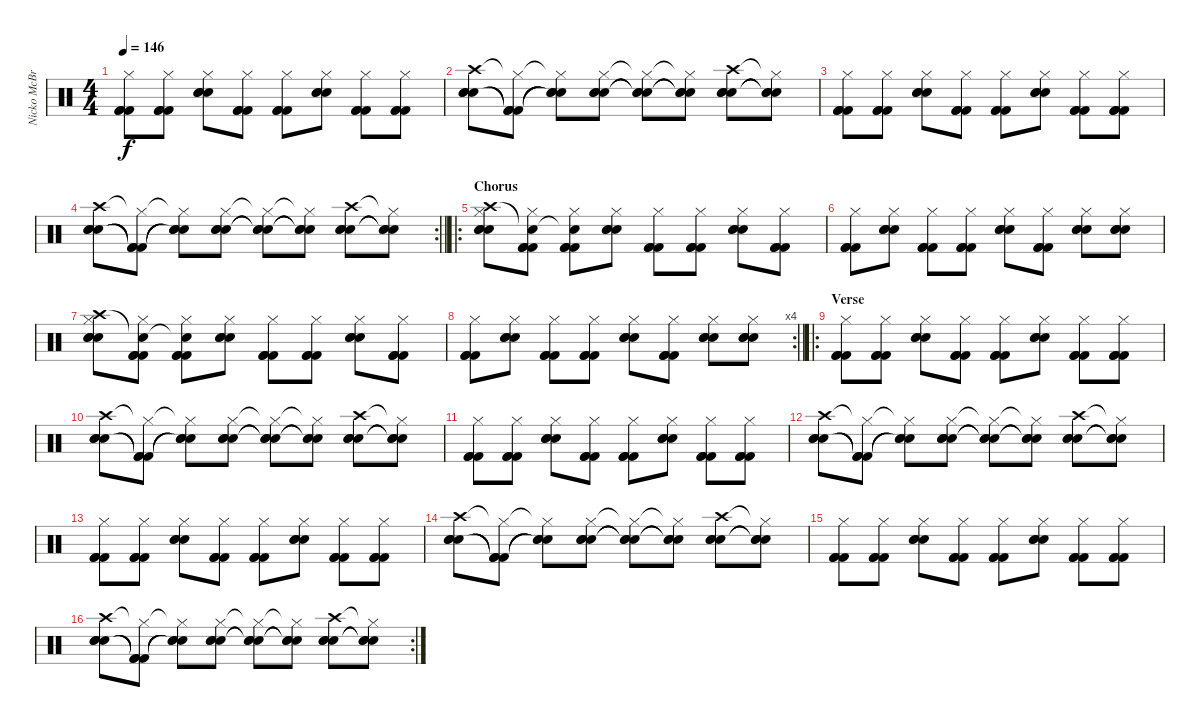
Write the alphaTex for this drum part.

\track ("Nicko McBrain" "Nicko McBr") {instrument percussion}
\staff {score}
\articulation defaults
\ts (4 4)
\tempo 146
\clef neutral
\ks c
("Hi-Hat (closed)" "Kick (hit) 2" "Kick (hit) 2" "Kick (hit) 2").8{dy f} ("Hi-Hat (closed)" "Kick (hit) 2" "Kick (hit) 2" "Kick (hit) 2").8 ("Hi-Hat (closed)" "Snare (hit) 2" "Snare (hit) 2" "Snare (hit) 2").8 ("Hi-Hat (closed)" "Kick (hit) 2" "Kick (hit) 2" "Kick (hit) 2").8 ("Hi-Hat (closed)" "Kick (hit) 2" "Kick (hit) 2" "Kick (hit) 2").8 ("Hi-Hat (closed)" "Snare (hit) 2" "Snare (hit) 2" "Snare (hit) 2").8 ("Hi-Hat (closed)" "Kick (hit) 2" "Kick (hit) 2" "Kick (hit) 2").8 ("Hi-Hat (closed)" "Kick (hit) 2" "Kick (hit) 2" "Kick (hit) 2").8 |
("Crash high (hit)" "Snare (hit) 2" "Snare (hit) 2" "Snare (hit) 2").8 ("Hi-Hat (closed)"{t} "Kick (hit) 2"{t} "Kick (hit) 2"{t} "Kick (hit) 2"{t}).8 ("Hi-Hat (closed)"{t} "Snare (hit) 2"{t} "Snare (hit) 2"{t} "Snare (hit) 2"{t}).8 ("Hi-Hat (closed)" "Snare (hit) 2" "Snare (hit) 2" "Snare (hit) 2").8 ("Hi-Hat (closed)"{t} "Snare (hit) 2"{t} "Snare (hit) 2"{t} "Snare (hit) 2"{t}).8 ("Hi-Hat (closed)"{t} "Snare (hit) 2"{t} "Snare (hit) 2"{t} "Snare (hit) 2"{t}).8 ("Crash high (hit)" "Snare (hit) 2" "Snare (hit) 2" "Snare (hit) 2").8 ("Hi-Hat (closed)"{t} "Snare (hit) 2"{t} "Snare (hit) 2"{t} "Snare (hit) 2"{t}).8 |
("Hi-Hat (closed)" "Kick (hit) 2" "Kick (hit) 2" "Kick (hit) 2").8 ("Hi-Hat (closed)" "Kick (hit) 2" "Kick (hit) 2" "Kick (hit) 2").8 ("Hi-Hat (closed)" "Snare (hit) 2" "Snare (hit) 2" "Snare (hit) 2").8 ("Hi-Hat (closed)" "Kick (hit) 2" "Kick (hit) 2" "Kick (hit) 2").8 ("Hi-Hat (closed)" "Kick (hit) 2" "Kick (hit) 2" "Kick (hit) 2").8 ("Hi-Hat (closed)" "Snare (hit) 2" "Snare (hit) 2" "Snare (hit) 2").8 ("Hi-Hat (closed)" "Kick (hit) 2" "Kick (hit) 2" "Kick (hit) 2").8 ("Hi-Hat (closed)" "Kick (hit) 2" "Kick (hit) 2" "Kick (hit) 2").8 |
\rc 2
\barLineRight lightlight
("Crash high (hit)" "Snare (hit) 2" "Snare (hit) 2" "Snare (hit) 2").8 ("Hi-Hat (closed)"{t} "Kick (hit) 2"{t} "Kick (hit) 2"{t} "Kick (hit) 2"{t}).8 ("Hi-Hat (closed)"{t} "Snare (hit) 2"{t} "Snare (hit) 2"{t} "Snare (hit) 2"{t}).8 ("Hi-Hat (closed)" "Snare (hit) 2" "Snare (hit) 2" "Snare (hit) 2").8 ("Hi-Hat (closed)"{t} "Snare (hit) 2"{t} "Snare (hit) 2"{t} "Snare (hit) 2"{t}).8 ("Hi-Hat (closed)"{t} "Snare (hit) 2"{t} "Snare (hit) 2"{t} "Snare (hit) 2"{t}).8 ("Crash high (hit)" "Snare (hit) 2" "Snare (hit) 2" "Snare (hit) 2").8 ("Hi-Hat (closed)"{t} "Snare (hit) 2"{t} "Snare (hit) 2"{t} "Snare (hit) 2"{t}).8 |
\ro
\section ("" "Chorus")
("Crash high (hit)" "Hi-Hat (closed)" "Snare (hit) 2" "Snare (hit) 2" "Snare (hit) 2").8 ("Snare (hit)"{t} "Hi-Hat (closed)" "Kick (hit) 2" "Kick (hit) 2" "Kick (hit) 2").8 ("Snare (hit)"{t} "Hi-Hat (closed)" "Kick (hit) 2" "Kick (hit) 2" "Kick (hit) 2").8 ("Hi-Hat (closed)" "Snare (hit) 2" "Snare (hit) 2" "Snare (hit) 2").8 ("Hi-Hat (closed)" "Kick (hit) 2" "Kick (hit) 2" "Kick (hit) 2").8 ("Hi-Hat (closed)" "Kick (hit) 2" "Kick (hit) 2" "Kick (hit) 2").8 ("Hi-Hat (closed)" "Snare (hit) 2" "Snare (hit) 2" "Snare (hit) 2").8 ("Hi-Hat (closed)" "Kick (hit) 2" "Kick (hit) 2" "Kick (hit) 2").8 |
("Hi-Hat (closed)" "Kick (hit) 2" "Kick (hit) 2" "Kick (hit) 2").8 ("Hi-Hat (closed)" "Snare (hit) 2" "Snare (hit) 2" "Snare (hit) 2").8 ("Hi-Hat (closed)" "Kick (hit) 2" "Kick (hit) 2" "Kick (hit) 2").8 ("Hi-Hat (closed)" "Kick (hit) 2" "Kick (hit) 2" "Kick (hit) 2").8 ("Hi-Hat (closed)" "Snare (hit) 2" "Snare (hit) 2" "Snare (hit) 2").8 ("Hi-Hat (closed)" "Kick (hit) 2" "Kick (hit) 2" "Kick (hit) 2").8 ("Hi-Hat (closed)" "Snare (hit) 2" "Snare (hit) 2" "Snare (hit) 2").8 ("Hi-Hat (closed)" "Snare (hit) 2" "Snare (hit) 2" "Snare (hit) 2").8 |
("Crash high (hit)" "Hi-Hat (closed)" "Snare (hit) 2" "Snare (hit) 2" "Snare (hit) 2").8 ("Snare (hit)"{t} "Hi-Hat (closed)" "Kick (hit) 2" "Kick (hit) 2" "Kick (hit) 2").8 ("Snare (hit)"{t} "Hi-Hat (closed)" "Kick (hit) 2" "Kick (hit) 2" "Kick (hit) 2").8 ("Hi-Hat (closed)" "Snare (hit) 2" "Snare (hit) 2" "Snare (hit) 2").8 ("Hi-Hat (closed)" "Kick (hit) 2" "Kick (hit) 2" "Kick (hit) 2").8 ("Hi-Hat (closed)" "Kick (hit) 2" "Kick (hit) 2" "Kick (hit) 2").8 ("Hi-Hat (closed)" "Snare (hit) 2" "Snare (hit) 2" "Snare (hit) 2").8 ("Hi-Hat (closed)" "Kick (hit) 2" "Kick (hit) 2" "Kick (hit) 2").8 |
\rc 4
\barLineRight lightlight
("Hi-Hat (closed)" "Kick (hit) 2" "Kick (hit) 2" "Kick (hit) 2").8 ("Hi-Hat (closed)" "Snare (hit) 2" "Snare (hit) 2" "Snare (hit) 2").8 ("Hi-Hat (closed)" "Kick (hit) 2" "Kick (hit) 2" "Kick (hit) 2").8 ("Hi-Hat (closed)" "Kick (hit) 2" "Kick (hit) 2" "Kick (hit) 2").8 ("Hi-Hat (closed)" "Snare (hit) 2" "Snare (hit) 2" "Snare (hit) 2").8 ("Hi-Hat (closed)" "Kick (hit) 2" "Kick (hit) 2" "Kick (hit) 2").8 ("Hi-Hat (closed)" "Snare (hit) 2" "Snare (hit) 2" "Snare (hit) 2").8 ("Hi-Hat (closed)" "Snare (hit) 2" "Snare (hit) 2" "Snare (hit) 2").8 |
\ro
\section ("" "Verse")
("Hi-Hat (closed)" "Kick (hit) 2" "Kick (hit) 2" "Kick (hit) 2").8 ("Hi-Hat (closed)" "Kick (hit) 2" "Kick (hit) 2" "Kick (hit) 2").8 ("Hi-Hat (closed)" "Snare (hit) 2" "Snare (hit) 2" "Snare (hit) 2").8 ("Hi-Hat (closed)" "Kick (hit) 2" "Kick (hit) 2" "Kick (hit) 2").8 ("Hi-Hat (closed)" "Kick (hit) 2" "Kick (hit) 2" "Kick (hit) 2").8 ("Hi-Hat (closed)" "Snare (hit) 2" "Snare (hit) 2" "Snare (hit) 2").8 ("Hi-Hat (closed)" "Kick (hit) 2" "Kick (hit) 2" "Kick (hit) 2").8 ("Hi-Hat (closed)" "Kick (hit) 2" "Kick (hit) 2" "Kick (hit) 2").8 |
("Crash high (hit)" "Snare (hit) 2" "Snare (hit) 2" "Snare (hit) 2").8 ("Hi-Hat (closed)"{t} "Kick (hit) 2"{t} "Kick (hit) 2"{t} "Kick (hit) 2"{t}).8 ("Hi-Hat (closed)"{t} "Snare (hit) 2"{t} "Snare (hit) 2"{t} "Snare (hit) 2"{t}).8 ("Hi-Hat (closed)" "Snare (hit) 2" "Snare (hit) 2" "Snare (hit) 2").8 ("Hi-Hat (closed)"{t} "Snare (hit) 2"{t} "Snare (hit) 2"{t} "Snare (hit) 2"{t}).8 ("Hi-Hat (closed)"{t} "Snare (hit) 2"{t} "Snare (hit) 2"{t} "Snare (hit) 2"{t}).8 ("Crash high (hit)" "Snare (hit) 2" "Snare (hit) 2" "Snare (hit) 2").8 ("Hi-Hat (closed)"{t} "Snare (hit) 2"{t} "Snare (hit) 2"{t} "Snare (hit) 2"{t}).8 |
("Hi-Hat (closed)" "Kick (hit) 2" "Kick (hit) 2" "Kick (hit) 2").8 ("Hi-Hat (closed)" "Kick (hit) 2" "Kick (hit) 2" "Kick (hit) 2").8 ("Hi-Hat (closed)" "Snare (hit) 2" "Snare (hit) 2" "Snare (hit) 2").8 ("Hi-Hat (closed)" "Kick (hit) 2" "Kick (hit) 2" "Kick (hit) 2").8 ("Hi-Hat (closed)" "Kick (hit) 2" "Kick (hit) 2" "Kick (hit) 2").8 ("Hi-Hat (closed)" "Snare (hit) 2" "Snare (hit) 2" "Snare (hit) 2").8 ("Hi-Hat (closed)" "Kick (hit) 2" "Kick (hit) 2" "Kick (hit) 2").8 ("Hi-Hat (closed)" "Kick (hit) 2" "Kick (hit) 2" "Kick (hit) 2").8 |
("Crash high (hit)" "Snare (hit) 2" "Snare (hit) 2" "Snare (hit) 2").8 ("Hi-Hat (closed)"{t} "Kick (hit) 2"{t} "Kick (hit) 2"{t} "Kick (hit) 2"{t}).8 ("Hi-Hat (closed)"{t} "Snare (hit) 2"{t} "Snare (hit) 2"{t} "Snare (hit) 2"{t}).8 ("Hi-Hat (closed)" "Snare (hit) 2" "Snare (hit) 2" "Snare (hit) 2").8 ("Hi-Hat (closed)"{t} "Snare (hit) 2"{t} "Snare (hit) 2"{t} "Snare (hit) 2"{t}).8 ("Hi-Hat (closed)"{t} "Snare (hit) 2"{t} "Snare (hit) 2"{t} "Snare (hit) 2"{t}).8 ("Crash high (hit)" "Snare (hit) 2" "Snare (hit) 2" "Snare (hit) 2").8 ("Hi-Hat (closed)"{t} "Snare (hit) 2"{t} "Snare (hit) 2"{t} "Snare (hit) 2"{t}).8 |
("Hi-Hat (closed)" "Kick (hit) 2" "Kick (hit) 2" "Kick (hit) 2").8 ("Hi-Hat (closed)" "Kick (hit) 2" "Kick (hit) 2" "Kick (hit) 2").8 ("Hi-Hat (closed)" "Snare (hit) 2" "Snare (hit) 2" "Snare (hit) 2").8 ("Hi-Hat (closed)" "Kick (hit) 2" "Kick (hit) 2" "Kick (hit) 2").8 ("Hi-Hat (closed)" "Kick (hit) 2" "Kick (hit) 2" "Kick (hit) 2").8 ("Hi-Hat (closed)" "Snare (hit) 2" "Snare (hit) 2" "Snare (hit) 2").8 ("Hi-Hat (closed)" "Kick (hit) 2" "Kick (hit) 2" "Kick (hit) 2").8 ("Hi-Hat (closed)" "Kick (hit) 2" "Kick (hit) 2" "Kick (hit) 2").8 |
("Crash high (hit)" "Snare (hit) 2" "Snare (hit) 2" "Snare (hit) 2").8 ("Hi-Hat (closed)"{t} "Kick (hit) 2"{t} "Kick (hit) 2"{t} "Kick (hit) 2"{t}).8 ("Hi-Hat (closed)"{t} "Snare (hit) 2"{t} "Snare (hit) 2"{t} "Snare (hit) 2"{t}).8 ("Hi-Hat (closed)" "Snare (hit) 2" "Snare (hit) 2" "Snare (hit) 2").8 ("Hi-Hat (closed)"{t} "Snare (hit) 2"{t} "Snare (hit) 2"{t} "Snare (hit) 2"{t}).8 ("Hi-Hat (closed)"{t} "Snare (hit) 2"{t} "Snare (hit) 2"{t} "Snare (hit) 2"{t}).8 ("Crash high (hit)" "Snare (hit) 2" "Snare (hit) 2" "Snare (hit) 2").8 ("Hi-Hat (closed)"{t} "Snare (hit) 2"{t} "Snare (hit) 2"{t} "Snare (hit) 2"{t}).8 |
("Hi-Hat (closed)" "Kick (hit) 2" "Kick (hit) 2" "Kick (hit) 2").8 ("Hi-Hat (closed)" "Kick (hit) 2" "Kick (hit) 2" "Kick (hit) 2").8 ("Hi-Hat (closed)" "Snare (hit) 2" "Snare (hit) 2" "Snare (hit) 2").8 ("Hi-Hat (closed)" "Kick (hit) 2" "Kick (hit) 2" "Kick (hit) 2").8 ("Hi-Hat (closed)" "Kick (hit) 2" "Kick (hit) 2" "Kick (hit) 2").8 ("Hi-Hat (closed)" "Snare (hit) 2" "Snare (hit) 2" "Snare (hit) 2").8 ("Hi-Hat (closed)" "Kick (hit) 2" "Kick (hit) 2" "Kick (hit) 2").8 ("Hi-Hat (closed)" "Kick (hit) 2" "Kick (hit) 2" "Kick (hit) 2").8 |
\rc 2
("Crash high (hit)" "Snare (hit) 2" "Snare (hit) 2" "Snare (hit) 2").8 ("Hi-Hat (closed)"{t} "Kick (hit) 2"{t} "Kick (hit) 2"{t} "Kick (hit) 2"{t}).8 ("Hi-Hat (closed)"{t} "Snare (hit) 2"{t} "Snare (hit) 2"{t} "Snare (hit) 2"{t}).8 ("Hi-Hat (closed)" "Snare (hit) 2" "Snare (hit) 2" "Snare (hit) 2").8 ("Hi-Hat (closed)"{t} "Snare (hit) 2"{t} "Snare (hit) 2"{t} "Snare (hit) 2"{t}).8 ("Hi-Hat (closed)"{t} "Snare (hit) 2"{t} "Snare (hit) 2"{t} "Snare (hit) 2"{t}).8 ("Crash high (hit)" "Snare (hit) 2" "Snare (hit) 2" "Snare (hit) 2").8 ("Hi-Hat (closed)"{t} "Snare (hit) 2"{t} "Snare (hit) 2"{t} "Snare (hit) 2"{t}).8
